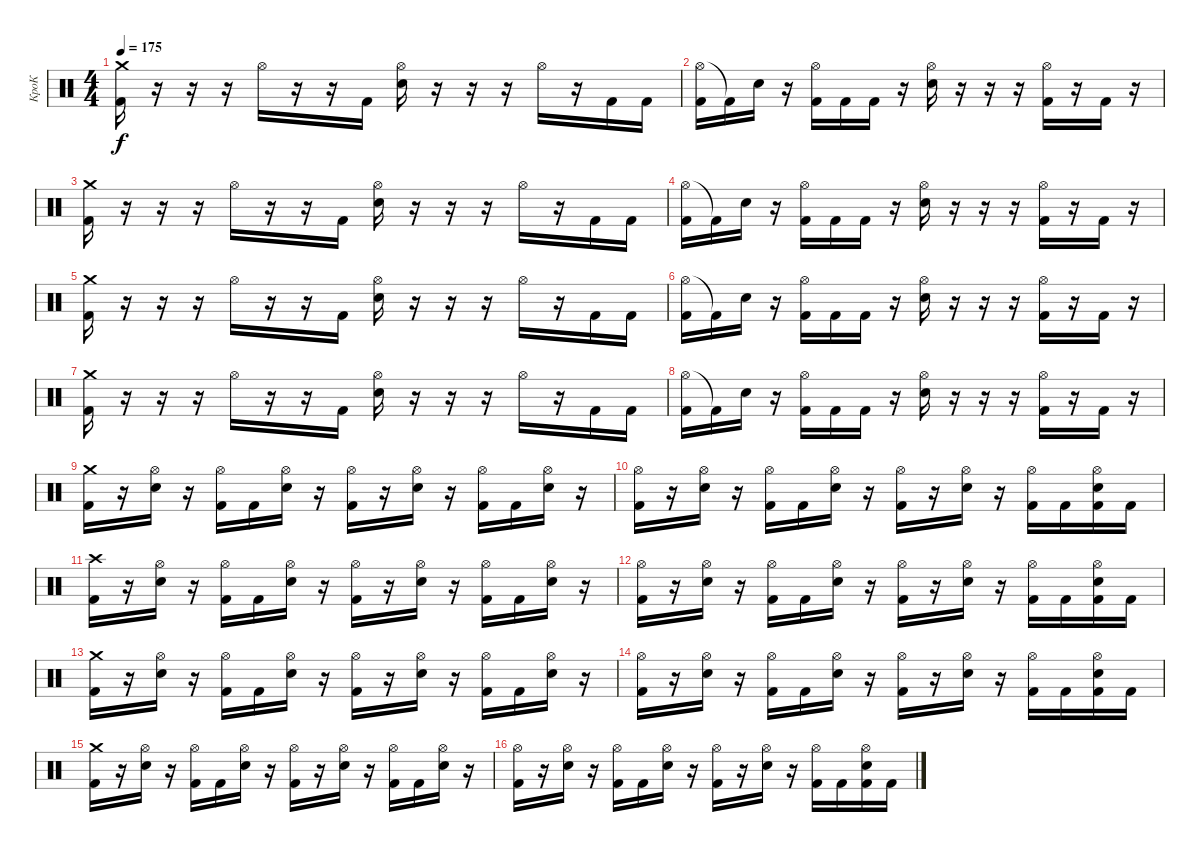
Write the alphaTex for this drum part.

\track ("КроК" "КроК") {instrument percussion}
\staff {score}
\articulation defaults
\ts (4 4)
\tempo 175
\clef neutral
\ks c
("Crash medium (hit)" "Kick (hit) 2").16{dy f} r.16 r.16 r.16 "Hi-Hat (open)".16 r.16 r.16 "Kick (hit) 2".16 ("Hi-Hat (open)" "Electric Snare (hit)").16 r.16 r.16 r.16 "Hi-Hat (open)".16 r.16 "Kick (hit) 2".16 "Kick (hit) 2".16 |
("Hi-Hat (open)" "Kick (hit) 2").16 "Kick (hit) 2"{t}.16 "Electric Snare (hit)".16 r.16 ("Hi-Hat (open)" "Kick (hit) 2").16 "Kick (hit) 2".16 "Kick (hit) 2".16 r.16 ("Hi-Hat (open)" "Electric Snare (hit)").16 r.16 r.16 r.16 ("Hi-Hat (open)" "Kick (hit) 2").16 r.16 "Kick (hit) 2".16 r.16 |
("Crash medium (hit)" "Kick (hit) 2").16 r.16 r.16 r.16 "Hi-Hat (open)".16 r.16 r.16 "Kick (hit) 2".16 ("Hi-Hat (open)" "Electric Snare (hit)").16 r.16 r.16 r.16 "Hi-Hat (open)".16 r.16 "Kick (hit) 2".16 "Kick (hit) 2".16 |
("Hi-Hat (open)" "Kick (hit) 2").16 "Kick (hit) 2"{t}.16 "Electric Snare (hit)".16 r.16 ("Hi-Hat (open)" "Kick (hit) 2").16 "Kick (hit) 2".16 "Kick (hit) 2".16 r.16 ("Hi-Hat (open)" "Electric Snare (hit)").16 r.16 r.16 r.16 ("Hi-Hat (open)" "Kick (hit) 2").16 r.16 "Kick (hit) 2".16 r.16 |
("Crash medium (hit)" "Kick (hit) 2").16 r.16 r.16 r.16 "Hi-Hat (open)".16 r.16 r.16 "Kick (hit) 2".16 ("Hi-Hat (open)" "Electric Snare (hit)").16 r.16 r.16 r.16 "Hi-Hat (open)".16 r.16 "Kick (hit) 2".16 "Kick (hit) 2".16 |
("Hi-Hat (open)" "Kick (hit) 2").16 "Kick (hit) 2"{t}.16 "Electric Snare (hit)".16 r.16 ("Hi-Hat (open)" "Kick (hit) 2").16 "Kick (hit) 2".16 "Kick (hit) 2".16 r.16 ("Hi-Hat (open)" "Electric Snare (hit)").16 r.16 r.16 r.16 ("Hi-Hat (open)" "Kick (hit) 2").16 r.16 "Kick (hit) 2".16 r.16 |
("Crash medium (hit)" "Kick (hit) 2").16 r.16 r.16 r.16 "Hi-Hat (open)".16 r.16 r.16 "Kick (hit) 2".16 ("Hi-Hat (open)" "Electric Snare (hit)").16 r.16 r.16 r.16 "Hi-Hat (open)".16 r.16 "Kick (hit) 2".16 "Kick (hit) 2".16 |
("Hi-Hat (open)" "Kick (hit) 2").16 "Kick (hit) 2"{t}.16 "Electric Snare (hit)".16 r.16 ("Hi-Hat (open)" "Kick (hit) 2").16 "Kick (hit) 2".16 "Kick (hit) 2".16 r.16 ("Hi-Hat (open)" "Electric Snare (hit)").16 r.16 r.16 r.16 ("Hi-Hat (open)" "Kick (hit) 2").16 r.16 "Kick (hit) 2".16 r.16 |
("Crash medium (hit)" "Kick (hit) 2").16 r.16 ("Hi-Hat (open)" "Electric Snare (hit)").16 r.16 ("Hi-Hat (open)" "Kick (hit) 2").16 "Kick (hit) 2".16 ("Hi-Hat (open)" "Electric Snare (hit)").16 r.16 ("Hi-Hat (open)" "Kick (hit) 2").16 r.16 ("Hi-Hat (open)" "Electric Snare (hit)").16 r.16 ("Hi-Hat (open)" "Kick (hit) 2").16 "Kick (hit) 2".16 ("Hi-Hat (open)" "Electric Snare (hit)").16 r.16 |
("Hi-Hat (open)" "Kick (hit) 2").16 r.16 ("Hi-Hat (open)" "Electric Snare (hit)").16 r.16 ("Hi-Hat (open)" "Kick (hit) 2").16 "Kick (hit) 2".16 ("Hi-Hat (open)" "Electric Snare (hit)").16 r.16 ("Hi-Hat (open)" "Kick (hit) 2").16 r.16 ("Hi-Hat (open)" "Electric Snare (hit)").16 r.16 ("Hi-Hat (open)" "Kick (hit) 2").16 "Kick (hit) 2".16 ("Hi-Hat (open)" "Electric Snare (hit)" "Kick (hit) 2").16 "Kick (hit) 2".16 |
("Crash high (hit)" "Kick (hit) 2").16 r.16 ("Hi-Hat (open)" "Electric Snare (hit)").16 r.16 ("Hi-Hat (open)" "Kick (hit) 2").16 "Kick (hit) 2".16 ("Hi-Hat (open)" "Electric Snare (hit)").16 r.16 ("Hi-Hat (open)" "Kick (hit) 2").16 r.16 ("Hi-Hat (open)" "Electric Snare (hit)").16 r.16 ("Hi-Hat (open)" "Kick (hit) 2").16 "Kick (hit) 2".16 ("Hi-Hat (open)" "Electric Snare (hit)").16 r.16 |
("Hi-Hat (open)" "Kick (hit) 2").16 r.16 ("Hi-Hat (open)" "Electric Snare (hit)").16 r.16 ("Hi-Hat (open)" "Kick (hit) 2").16 "Kick (hit) 2".16 ("Hi-Hat (open)" "Electric Snare (hit)").16 r.16 ("Hi-Hat (open)" "Kick (hit) 2").16 r.16 ("Hi-Hat (open)" "Electric Snare (hit)").16 r.16 ("Hi-Hat (open)" "Kick (hit) 2").16 "Kick (hit) 2".16 ("Hi-Hat (open)" "Electric Snare (hit)" "Kick (hit) 2").16 "Kick (hit) 2".16 |
("Crash medium (hit)" "Kick (hit) 2").16 r.16 ("Hi-Hat (open)" "Electric Snare (hit)").16 r.16 ("Hi-Hat (open)" "Kick (hit) 2").16 "Kick (hit) 2".16 ("Hi-Hat (open)" "Electric Snare (hit)").16 r.16 ("Hi-Hat (open)" "Kick (hit) 2").16 r.16 ("Hi-Hat (open)" "Electric Snare (hit)").16 r.16 ("Hi-Hat (open)" "Kick (hit) 2").16 "Kick (hit) 2".16 ("Hi-Hat (open)" "Electric Snare (hit)").16 r.16 |
("Hi-Hat (open)" "Kick (hit) 2").16 r.16 ("Hi-Hat (open)" "Electric Snare (hit)").16 r.16 ("Hi-Hat (open)" "Kick (hit) 2").16 "Kick (hit) 2".16 ("Hi-Hat (open)" "Electric Snare (hit)").16 r.16 ("Hi-Hat (open)" "Kick (hit) 2").16 r.16 ("Hi-Hat (open)" "Electric Snare (hit)").16 r.16 ("Hi-Hat (open)" "Kick (hit) 2").16 "Kick (hit) 2".16 ("Hi-Hat (open)" "Electric Snare (hit)" "Kick (hit) 2").16 "Kick (hit) 2".16 |
("Crash medium (hit)" "Kick (hit) 2").16 r.16 ("Hi-Hat (open)" "Electric Snare (hit)").16 r.16 ("Hi-Hat (open)" "Kick (hit) 2").16 "Kick (hit) 2".16 ("Hi-Hat (open)" "Electric Snare (hit)").16 r.16 ("Hi-Hat (open)" "Kick (hit) 2").16 r.16 ("Hi-Hat (open)" "Electric Snare (hit)").16 r.16 ("Hi-Hat (open)" "Kick (hit) 2").16 "Kick (hit) 2".16 ("Hi-Hat (open)" "Electric Snare (hit)").16 r.16 |
("Hi-Hat (open)" "Kick (hit) 2").16 r.16 ("Hi-Hat (open)" "Electric Snare (hit)").16 r.16 ("Hi-Hat (open)" "Kick (hit) 2").16 "Kick (hit) 2".16 ("Hi-Hat (open)" "Electric Snare (hit)").16 r.16 ("Hi-Hat (open)" "Kick (hit) 2").16 r.16 ("Hi-Hat (open)" "Electric Snare (hit)").16 r.16 ("Hi-Hat (open)" "Kick (hit) 2").16 "Kick (hit) 2".16 ("Hi-Hat (open)" "Electric Snare (hit)" "Kick (hit) 2").16 "Kick (hit) 2".16
